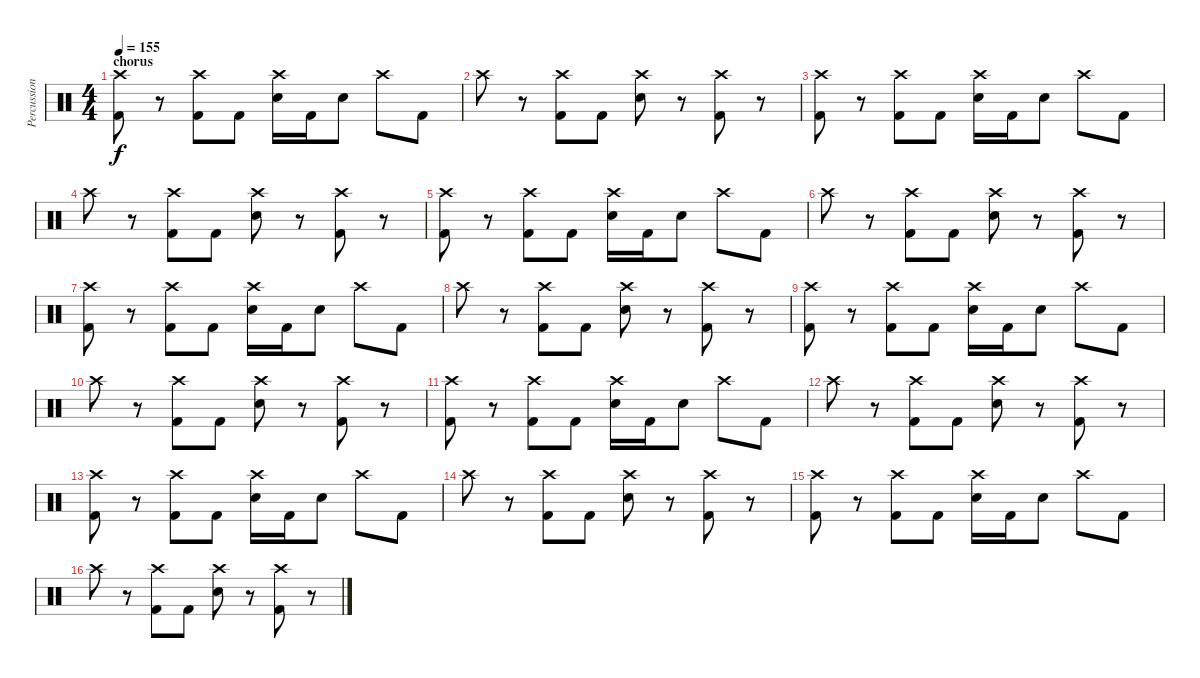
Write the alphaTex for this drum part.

\track ("Percussion" "Percussion") {instrument percussion}
\staff {score}
\articulation defaults
\ts (4 4)
\section ("" "chorus")
\tempo 155
\clef neutral
\ks c
("Crash high (hit)" "Kick (hit) 2").8{dy f} r.8 ("Crash high (hit)" "Kick (hit) 2").8 "Kick (hit) 2".8 ("Crash high (hit)" "Snare (hit) 2").16 "Kick (hit) 2".16 "Snare (hit) 2".8 "Crash high (hit)".8 "Kick (hit) 2".8 |
"Crash high (hit)".8 r.8 ("Crash high (hit)" "Kick (hit) 2").8 "Kick (hit) 2".8 ("Crash high (hit)" "Snare (hit) 2").8 r.8 ("Crash high (hit)" "Kick (hit) 2").8 r.8 |
("Crash high (hit)" "Kick (hit) 2").8 r.8 ("Crash high (hit)" "Kick (hit) 2").8 "Kick (hit) 2".8 ("Crash high (hit)" "Snare (hit) 2").16 "Kick (hit) 2".16 "Snare (hit) 2".8 "Crash high (hit)".8 "Kick (hit) 2".8 |
"Crash high (hit)".8 r.8 ("Crash high (hit)" "Kick (hit) 2").8 "Kick (hit) 2".8 ("Crash high (hit)" "Snare (hit) 2").8 r.8 ("Crash high (hit)" "Kick (hit) 2").8 r.8 |
("Crash high (hit)" "Kick (hit) 2").8 r.8 ("Crash high (hit)" "Kick (hit) 2").8 "Kick (hit) 2".8 ("Crash high (hit)" "Snare (hit) 2").16 "Kick (hit) 2".16 "Snare (hit) 2".8 "Crash high (hit)".8 "Kick (hit) 2".8 |
"Crash high (hit)".8 r.8 ("Crash high (hit)" "Kick (hit) 2").8 "Kick (hit) 2".8 ("Crash high (hit)" "Snare (hit) 2").8 r.8 ("Crash high (hit)" "Kick (hit) 2").8 r.8 |
("Crash high (hit)" "Kick (hit) 2").8 r.8 ("Crash high (hit)" "Kick (hit) 2").8 "Kick (hit) 2".8 ("Crash high (hit)" "Snare (hit) 2").16 "Kick (hit) 2".16 "Snare (hit) 2".8 "Crash high (hit)".8 "Kick (hit) 2".8 |
"Crash high (hit)".8 r.8 ("Crash high (hit)" "Kick (hit) 2").8 "Kick (hit) 2".8 ("Crash high (hit)" "Snare (hit) 2").8 r.8 ("Crash high (hit)" "Kick (hit) 2").8 r.8 |
("Crash high (hit)" "Kick (hit) 2").8 r.8 ("Crash high (hit)" "Kick (hit) 2").8 "Kick (hit) 2".8 ("Crash high (hit)" "Snare (hit) 2").16 "Kick (hit) 2".16 "Snare (hit) 2".8 "Crash high (hit)".8 "Kick (hit) 2".8 |
"Crash high (hit)".8 r.8 ("Crash high (hit)" "Kick (hit) 2").8 "Kick (hit) 2".8 ("Crash high (hit)" "Snare (hit) 2").8 r.8 ("Crash high (hit)" "Kick (hit) 2").8 r.8 |
("Crash high (hit)" "Kick (hit) 2").8 r.8 ("Crash high (hit)" "Kick (hit) 2").8 "Kick (hit) 2".8 ("Crash high (hit)" "Snare (hit) 2").16 "Kick (hit) 2".16 "Snare (hit) 2".8 "Crash high (hit)".8 "Kick (hit) 2".8 |
"Crash high (hit)".8 r.8 ("Crash high (hit)" "Kick (hit) 2").8 "Kick (hit) 2".8 ("Crash high (hit)" "Snare (hit) 2").8 r.8 ("Crash high (hit)" "Kick (hit) 2").8 r.8 |
("Crash high (hit)" "Kick (hit) 2").8 r.8 ("Crash high (hit)" "Kick (hit) 2").8 "Kick (hit) 2".8 ("Crash high (hit)" "Snare (hit) 2").16 "Kick (hit) 2".16 "Snare (hit) 2".8 "Crash high (hit)".8 "Kick (hit) 2".8 |
"Crash high (hit)".8 r.8 ("Crash high (hit)" "Kick (hit) 2").8 "Kick (hit) 2".8 ("Crash high (hit)" "Snare (hit) 2").8 r.8 ("Crash high (hit)" "Kick (hit) 2").8 r.8 |
("Crash high (hit)" "Kick (hit) 2").8 r.8 ("Crash high (hit)" "Kick (hit) 2").8 "Kick (hit) 2".8 ("Crash high (hit)" "Snare (hit) 2").16 "Kick (hit) 2".16 "Snare (hit) 2".8 "Crash high (hit)".8 "Kick (hit) 2".8 |
"Crash high (hit)".8 r.8 ("Crash high (hit)" "Kick (hit) 2").8 "Kick (hit) 2".8 ("Crash high (hit)" "Snare (hit) 2").8 r.8 ("Crash high (hit)" "Kick (hit) 2").8 r.8
